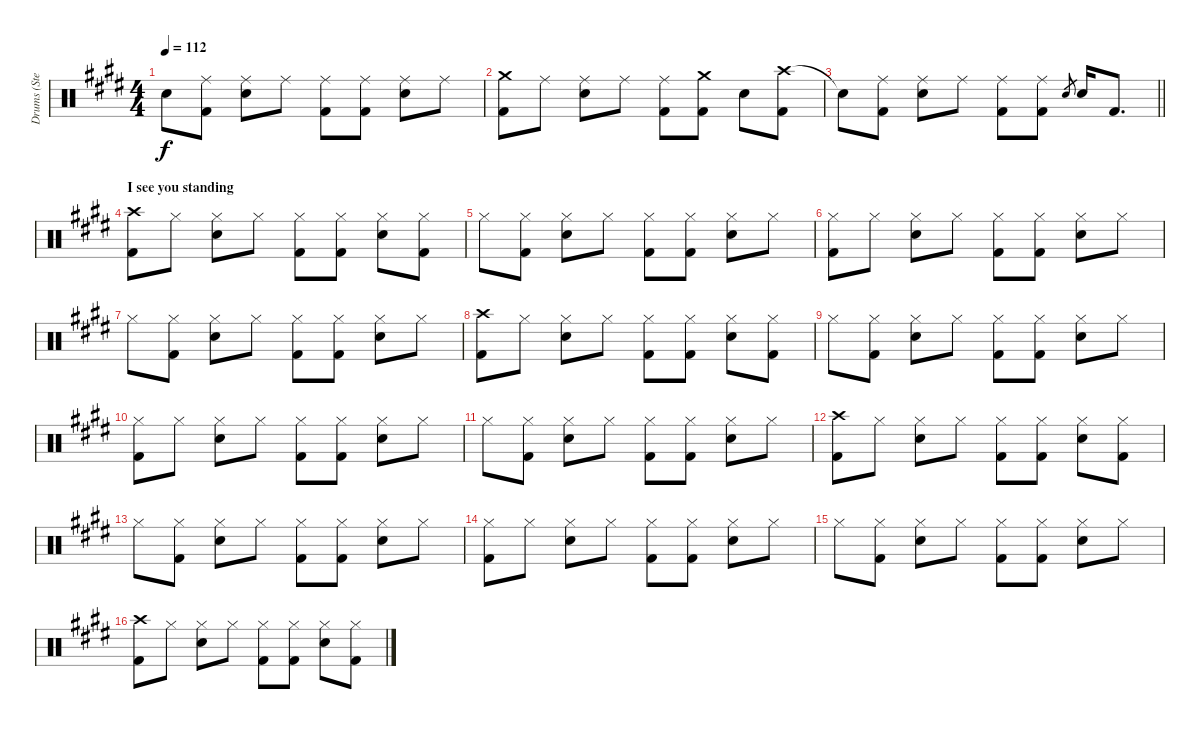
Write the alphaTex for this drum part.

\track ("Drums (Steven)" "Drums (Ste") {instrument percussion}
\staff {score}
\articulation defaults
\ts (4 4)
\tempo 112
\clef neutral
\ks e "Snare (hit)"{t}.8{dy f}
("Ride (middle)" "Kick (hit) 2").8 ("Ride (middle)" "Snare (hit) 2").8 "Ride (middle)".8 ("Ride (middle)" "Kick (hit) 2").8 ("Ride (middle)" "Kick (hit) 2").8 ("Ride (middle)" "Snare (hit) 2").8 "Ride (middle)".8 |
("Crash medium (hit)" "Kick (hit) 2").8 "Ride (middle)".8 ("Ride (middle)" "Snare (hit) 2").8 "Ride (middle)".8 ("Ride (middle)" "Kick (hit) 2").8 ("Crash medium (hit)" "Kick (hit) 2").8 "Snare (hit) 2".8 ("Crash high (hit)" "Kick (hit) 2").8 |
\barLineRight lightlight "Snare (hit)"{t}.8
("Ride (middle)" "Kick (hit) 2").8 ("Ride (middle)" "Snare (hit) 2").8 "Ride (middle)".8 ("Ride (middle)" "Kick (hit) 2").8 ("Ride (middle)" "Kick (hit) 2").8 "Snare (hit) 2".8{gr} "Snare (hit) 2".16 "Kick (hit) 2".8{d} |
\section ("" "I see you standing")
("Crash high (hit)" "Kick (hit) 2").8 "Hi-Hat (closed)".8 ("Hi-Hat (closed)" "Snare (hit) 2").8 "Hi-Hat (closed)".8 ("Hi-Hat (closed)" "Kick (hit) 2").8 ("Hi-Hat (closed)" "Kick (hit) 2").8 ("Hi-Hat (closed)" "Snare (hit) 2").8 ("Hi-Hat (closed)" "Kick (hit) 2").8 |
"Hi-Hat (closed)".8 ("Hi-Hat (closed)" "Kick (hit) 2").8 ("Hi-Hat (closed)" "Snare (hit) 2").8 "Hi-Hat (closed)".8 ("Hi-Hat (closed)" "Kick (hit) 2").8 ("Hi-Hat (closed)" "Kick (hit) 2").8 ("Hi-Hat (closed)" "Snare (hit) 2").8 "Hi-Hat (closed)".8 |
("Hi-Hat (closed)" "Kick (hit) 2").8 "Hi-Hat (closed)".8 ("Hi-Hat (closed)" "Snare (hit) 2").8 "Hi-Hat (closed)".8 ("Hi-Hat (closed)" "Kick (hit) 2").8 ("Hi-Hat (closed)" "Kick (hit) 2").8 ("Hi-Hat (closed)" "Snare (hit) 2").8 "Hi-Hat (closed)".8 |
"Hi-Hat (closed)".8 ("Hi-Hat (closed)" "Kick (hit) 2").8 ("Hi-Hat (closed)" "Snare (hit) 2").8 "Hi-Hat (closed)".8 ("Hi-Hat (closed)" "Kick (hit) 2").8 ("Hi-Hat (closed)" "Kick (hit) 2").8 ("Hi-Hat (closed)" "Snare (hit) 2").8 "Hi-Hat (closed)".8 |
("Crash high (hit)" "Kick (hit) 2").8 "Hi-Hat (closed)".8 ("Hi-Hat (closed)" "Snare (hit) 2").8 "Hi-Hat (closed)".8 ("Hi-Hat (closed)" "Kick (hit) 2").8 ("Hi-Hat (closed)" "Kick (hit) 2").8 ("Hi-Hat (closed)" "Snare (hit) 2").8 ("Hi-Hat (closed)" "Kick (hit) 2").8 |
"Hi-Hat (closed)".8 ("Hi-Hat (closed)" "Kick (hit) 2").8 ("Hi-Hat (closed)" "Snare (hit) 2").8 "Hi-Hat (closed)".8 ("Hi-Hat (closed)" "Kick (hit) 2").8 ("Hi-Hat (closed)" "Kick (hit) 2").8 ("Hi-Hat (closed)" "Snare (hit) 2").8 "Hi-Hat (closed)".8 |
("Hi-Hat (closed)" "Kick (hit) 2").8 "Hi-Hat (closed)".8 ("Hi-Hat (closed)" "Snare (hit) 2").8 "Hi-Hat (closed)".8 ("Hi-Hat (closed)" "Kick (hit) 2").8 ("Hi-Hat (closed)" "Kick (hit) 2").8 ("Hi-Hat (closed)" "Snare (hit) 2").8 "Hi-Hat (closed)".8 |
"Hi-Hat (closed)".8 ("Hi-Hat (closed)" "Kick (hit) 2").8 ("Hi-Hat (closed)" "Snare (hit) 2").8 "Hi-Hat (closed)".8 ("Hi-Hat (closed)" "Kick (hit) 2").8 ("Hi-Hat (closed)" "Kick (hit) 2").8 ("Hi-Hat (closed)" "Snare (hit) 2").8 "Hi-Hat (closed)".8 |
("Crash high (hit)" "Kick (hit) 2").8 "Hi-Hat (closed)".8 ("Hi-Hat (closed)" "Snare (hit) 2").8 "Hi-Hat (closed)".8 ("Hi-Hat (closed)" "Kick (hit) 2").8 ("Hi-Hat (closed)" "Kick (hit) 2").8 ("Hi-Hat (closed)" "Snare (hit) 2").8 ("Hi-Hat (closed)" "Kick (hit) 2").8 |
"Hi-Hat (closed)".8 ("Hi-Hat (closed)" "Kick (hit) 2").8 ("Hi-Hat (closed)" "Snare (hit) 2").8 "Hi-Hat (closed)".8 ("Hi-Hat (closed)" "Kick (hit) 2").8 ("Hi-Hat (closed)" "Kick (hit) 2").8 ("Hi-Hat (closed)" "Snare (hit) 2").8 "Hi-Hat (closed)".8 |
("Hi-Hat (closed)" "Kick (hit) 2").8 "Hi-Hat (closed)".8 ("Hi-Hat (closed)" "Snare (hit) 2").8 "Hi-Hat (closed)".8 ("Hi-Hat (closed)" "Kick (hit) 2").8 ("Hi-Hat (closed)" "Kick (hit) 2").8 ("Hi-Hat (closed)" "Snare (hit) 2").8 "Hi-Hat (closed)".8 |
"Hi-Hat (closed)".8 ("Hi-Hat (closed)" "Kick (hit) 2").8 ("Hi-Hat (closed)" "Snare (hit) 2").8 "Hi-Hat (closed)".8 ("Hi-Hat (closed)" "Kick (hit) 2").8 ("Hi-Hat (closed)" "Kick (hit) 2").8 ("Hi-Hat (closed)" "Snare (hit) 2").8 "Hi-Hat (closed)".8 |
("Crash high (hit)" "Kick (hit) 2").8 "Hi-Hat (closed)".8 ("Hi-Hat (closed)" "Snare (hit) 2").8 "Hi-Hat (closed)".8 ("Hi-Hat (closed)" "Kick (hit) 2").8 ("Hi-Hat (closed)" "Kick (hit) 2").8 ("Hi-Hat (closed)" "Snare (hit) 2").8 ("Hi-Hat (closed)" "Kick (hit) 2").8
